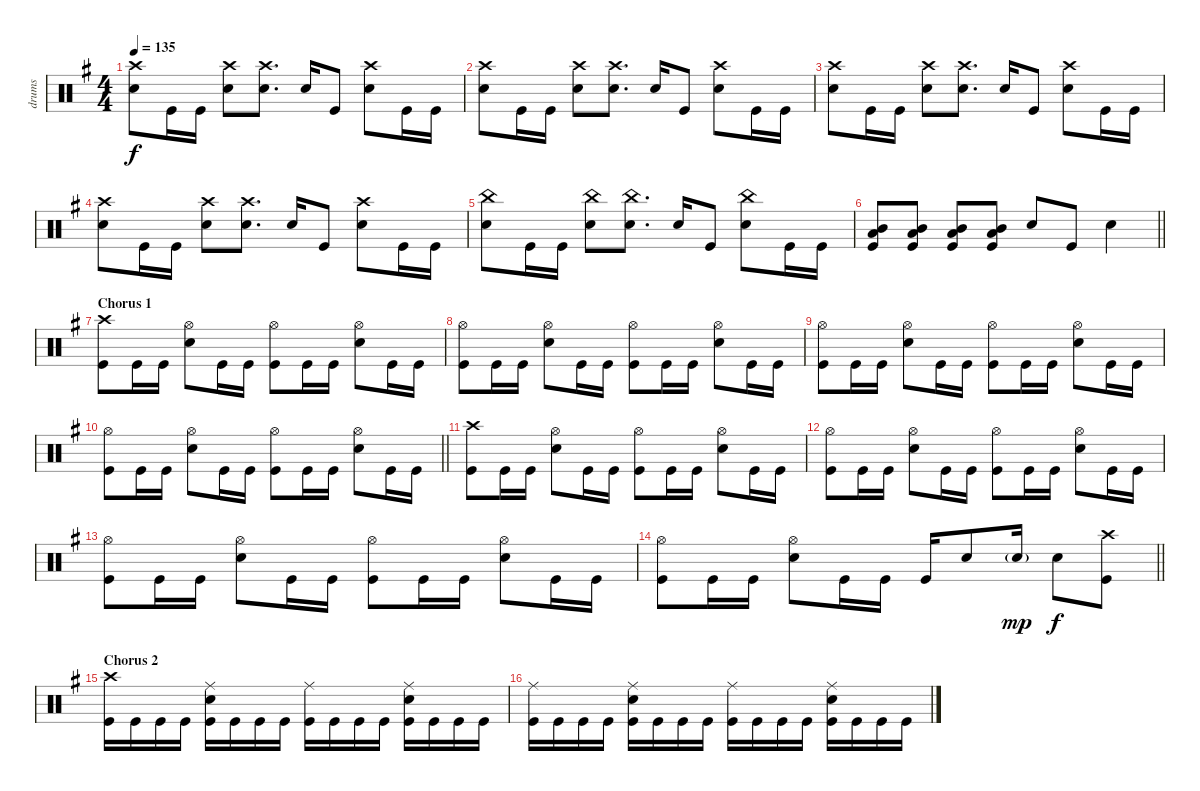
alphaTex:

\track ("drums" "drums") {instrument percussion}
\staff {score}
\articulation defaults
\ts (4 4)
\tempo 135
\clef neutral
\ks eminor
("Crash high (hit)" "Snare (hit) 2").8{dy f} "Kick (hit)".16 "Kick (hit)".16 ("Crash high (hit)" "Snare (hit) 2").8 ("Crash high (hit)" "Snare (hit) 2").8{d} "Snare (hit) 2".16 "Kick (hit)".8 ("Crash high (hit)" "Snare (hit) 2").8 "Kick (hit)".16 "Kick (hit)".16 |
("Crash high (hit)" "Snare (hit) 2").8 "Kick (hit)".16 "Kick (hit)".16 ("Crash high (hit)" "Snare (hit) 2").8 ("Crash high (hit)" "Snare (hit) 2").8{d} "Snare (hit) 2".16 "Kick (hit)".8 ("Crash high (hit)" "Snare (hit) 2").8 "Kick (hit)".16 "Kick (hit)".16 |
("Crash high (hit)" "Snare (hit) 2").8 "Kick (hit)".16 "Kick (hit)".16 ("Crash high (hit)" "Snare (hit) 2").8 ("Crash high (hit)" "Snare (hit) 2").8{d} "Snare (hit) 2".16 "Kick (hit)".8 ("Crash high (hit)" "Snare (hit) 2").8 "Kick (hit)".16 "Kick (hit)".16 |
("Crash high (hit)" "Snare (hit) 2").8 "Kick (hit)".16 "Kick (hit)".16 ("Crash high (hit)" "Snare (hit) 2").8 ("Crash high (hit)" "Snare (hit) 2").8{d} "Snare (hit) 2".16 "Kick (hit)".8 ("Crash high (hit)" "Snare (hit) 2").8 "Kick (hit)".16 "Kick (hit)".16 |
("China (hit)" "Snare (hit) 2").8 "Kick (hit)".16 "Kick (hit)".16 ("China (hit)" "Snare (hit) 2").8 ("China (hit)" "Snare (hit) 2").8{d} "Snare (hit) 2".16 "Kick (hit)".8 ("China (hit)" "Snare (hit) 2").8 "Kick (hit)".16 "Kick (hit)".16 |
\barLineRight lightlight
("Mid Tom (hit)" "Low Floor Tom (hit)" "Kick (hit)").8 ("Mid Tom (hit)" "Low Floor Tom (hit)" "Kick (hit)").8 ("Mid Tom (hit)" "Low Floor Tom (hit)" "Kick (hit)").8 ("Mid Tom (hit)" "Low Floor Tom (hit)" "Kick (hit)").8 "Snare (hit) 2".8 "Kick (hit)".8 "Snare (hit) 2".4 |
\section ("" "Chorus 1")
("Crash high (hit)" "Kick (hit)").8 "Kick (hit)".16 "Kick (hit)".16 ("Hi-Hat (open)" "Snare (hit) 2").8 "Kick (hit)".16 "Kick (hit)".16 ("Hi-Hat (open)" "Kick (hit)").8 "Kick (hit)".16 "Kick (hit)".16 ("Hi-Hat (open)" "Snare (hit) 2").8 "Kick (hit)".16 "Kick (hit)".16 |
("Hi-Hat (open)" "Kick (hit)").8 "Kick (hit)".16 "Kick (hit)".16 ("Hi-Hat (open)" "Snare (hit) 2").8 "Kick (hit)".16 "Kick (hit)".16 ("Hi-Hat (open)" "Kick (hit)").8 "Kick (hit)".16 "Kick (hit)".16 ("Hi-Hat (open)" "Snare (hit) 2").8 "Kick (hit)".16 "Kick (hit)".16 |
("Hi-Hat (open)" "Kick (hit)").8 "Kick (hit)".16 "Kick (hit)".16 ("Hi-Hat (open)" "Snare (hit) 2").8 "Kick (hit)".16 "Kick (hit)".16 ("Hi-Hat (open)" "Kick (hit)").8 "Kick (hit)".16 "Kick (hit)".16 ("Hi-Hat (open)" "Snare (hit) 2").8 "Kick (hit)".16 "Kick (hit)".16 |
\barLineRight lightlight
("Hi-Hat (open)" "Kick (hit)").8 "Kick (hit)".16 "Kick (hit)".16 ("Hi-Hat (open)" "Snare (hit) 2").8 "Kick (hit)".16 "Kick (hit)".16 ("Hi-Hat (open)" "Kick (hit)").8 "Kick (hit)".16 "Kick (hit)".16 ("Hi-Hat (open)" "Snare (hit) 2").8 "Kick (hit)".16 "Kick (hit)".16 |
("Crash high (hit)" "Kick (hit)").8 "Kick (hit)".16 "Kick (hit)".16 ("Hi-Hat (open)" "Snare (hit) 2").8 "Kick (hit)".16 "Kick (hit)".16 ("Hi-Hat (open)" "Kick (hit)").8 "Kick (hit)".16 "Kick (hit)".16 ("Hi-Hat (open)" "Snare (hit) 2").8 "Kick (hit)".16 "Kick (hit)".16 |
("Hi-Hat (open)" "Kick (hit)").8 "Kick (hit)".16 "Kick (hit)".16 ("Hi-Hat (open)" "Snare (hit) 2").8 "Kick (hit)".16 "Kick (hit)".16 ("Hi-Hat (open)" "Kick (hit)").8 "Kick (hit)".16 "Kick (hit)".16 ("Hi-Hat (open)" "Snare (hit) 2").8 "Kick (hit)".16 "Kick (hit)".16 |
("Hi-Hat (open)" "Kick (hit)").8 "Kick (hit)".16 "Kick (hit)".16 ("Hi-Hat (open)" "Snare (hit) 2").8 "Kick (hit)".16 "Kick (hit)".16 ("Hi-Hat (open)" "Kick (hit)").8 "Kick (hit)".16 "Kick (hit)".16 ("Hi-Hat (open)" "Snare (hit) 2").8 "Kick (hit)".16 "Kick (hit)".16 |
\barLineRight lightlight
("Hi-Hat (open)" "Kick (hit)").8 "Kick (hit)".16 "Kick (hit)".16 ("Hi-Hat (open)" "Snare (hit) 2").8 "Kick (hit)".16 "Kick (hit)".16 "Kick (hit)".16 "Snare (hit) 2".8 "Snare (hit) 2"{g}.16{dy mp} "Snare (hit) 2".8{dy f} ("Crash high (hit)" "Kick (hit)").8 |
\section ("" "Chorus 2")
("Crash high (hit)" "Kick (hit)").16 "Kick (hit)".16 "Kick (hit)".16 "Kick (hit)".16 ("Ride (middle)" "Snare (hit) 2" "Kick (hit)").16 "Kick (hit)".16 "Kick (hit)".16 "Kick (hit)".16 ("Ride (middle)" "Kick (hit)").16 "Kick (hit)".16 "Kick (hit)".16 "Kick (hit)".16 ("Ride (middle)" "Snare (hit) 2" "Kick (hit)").16 "Kick (hit)".16 "Kick (hit)".16 "Kick (hit)".16 |
("Ride (middle)" "Kick (hit)").16 "Kick (hit)".16 "Kick (hit)".16 "Kick (hit)".16 ("Ride (middle)" "Snare (hit) 2" "Kick (hit)").16 "Kick (hit)".16 "Kick (hit)".16 "Kick (hit)".16 ("Ride (middle)" "Kick (hit)").16 "Kick (hit)".16 "Kick (hit)".16 "Kick (hit)".16 ("Ride (middle)" "Snare (hit) 2" "Kick (hit)").16 "Kick (hit)".16 "Kick (hit)".16 "Kick (hit)".16
